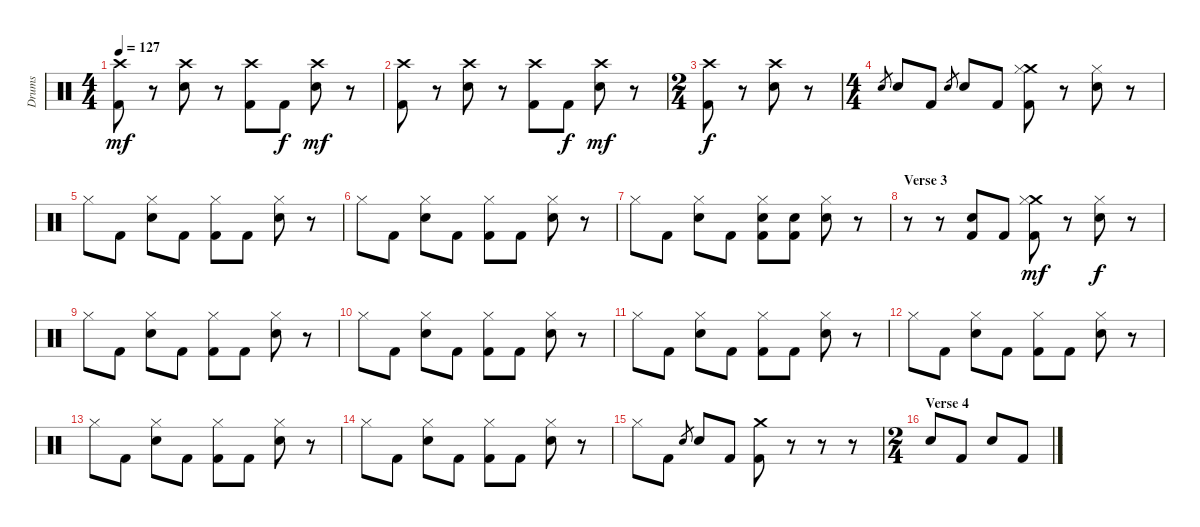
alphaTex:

\track ("Drums" "Drums") {instrument percussion}
\staff {score}
\articulation defaults
\ts (4 4)
\tempo 127
\clef neutral
\ks c
("Crash high (hit)" "Kick (hit) 2").8{dy mf} r.8 ("Crash high (hit)" "Electric Snare (hit)").8 r.8 ("Crash high (hit)" "Kick (hit) 2").8 "Kick (hit) 2".8{dy f} ("Crash high (hit)" "Electric Snare (hit)").8{dy mf} r.8 |
("Crash high (hit)" "Kick (hit) 2").8 r.8 ("Crash high (hit)" "Electric Snare (hit)").8 r.8 ("Crash high (hit)" "Kick (hit) 2").8 "Kick (hit) 2".8{dy f} ("Crash high (hit)" "Electric Snare (hit)").8{dy mf} r.8 |
\ts (2 4)
("Crash high (hit)" "Kick (hit) 2").8{dy f} r.8 ("Crash high (hit)" "Electric Snare (hit)").8 r.8 |
\ts (4 4)
"Electric Snare (hit)".8{gr} "Electric Snare (hit)".8 "Kick (hit) 2".8 "Electric Snare (hit)".8{gr} "Electric Snare (hit)".8 "Kick (hit) 2".8 ("Crash medium (hit)" "Hi-Hat (closed)" "Kick (hit) 2").8 r.8 ("Hi-Hat (closed)" "Electric Snare (hit)").8 r.8 |
"Hi-Hat (closed)".8 "Kick (hit) 2".8 ("Hi-Hat (closed)" "Electric Snare (hit)").8 "Kick (hit) 2".8 ("Hi-Hat (closed)" "Kick (hit) 2").8 "Kick (hit) 2".8 ("Hi-Hat (closed)" "Electric Snare (hit)").8 r.8 |
"Hi-Hat (closed)".8 "Kick (hit) 2".8 ("Hi-Hat (closed)" "Electric Snare (hit)").8 "Kick (hit) 2".8 ("Hi-Hat (closed)" "Kick (hit) 2").8 "Kick (hit) 2".8 ("Hi-Hat (closed)" "Electric Snare (hit)").8 r.8 |
"Hi-Hat (closed)".8 "Kick (hit) 2".8 ("Hi-Hat (closed)" "Electric Snare (hit)").8 "Kick (hit) 2".8 ("Hi-Hat (closed)" "Electric Snare (hit)" "Kick (hit) 2").8 ("Electric Snare (hit)" "Kick (hit) 2").8 ("Hi-Hat (closed)" "Electric Snare (hit)").8 r.8 |
\section ("" "Verse 3")
r.8 r.8 ("Electric Snare (hit)" "Kick (hit) 2").8 "Kick (hit) 2".8 ("Crash medium (hit)" "Hi-Hat (closed)" "Kick (hit) 2").8{dy mf} r.8 ("Hi-Hat (closed)" "Electric Snare (hit)").8{dy f} r.8 |
"Hi-Hat (closed)".8 "Kick (hit) 2".8 ("Hi-Hat (closed)" "Electric Snare (hit)").8 "Kick (hit) 2".8 ("Hi-Hat (closed)" "Kick (hit) 2").8 "Kick (hit) 2".8 ("Hi-Hat (closed)" "Electric Snare (hit)").8 r.8 |
"Hi-Hat (closed)".8 "Kick (hit) 2".8 ("Hi-Hat (closed)" "Electric Snare (hit)").8 "Kick (hit) 2".8 ("Hi-Hat (closed)" "Kick (hit) 2").8 "Kick (hit) 2".8 ("Hi-Hat (closed)" "Electric Snare (hit)").8 r.8 |
"Hi-Hat (closed)".8 "Kick (hit) 2".8 ("Hi-Hat (closed)" "Electric Snare (hit)").8 "Kick (hit) 2".8 ("Hi-Hat (closed)" "Kick (hit) 2").8 "Kick (hit) 2".8 ("Hi-Hat (closed)" "Electric Snare (hit)").8 r.8 |
"Hi-Hat (closed)".8 "Kick (hit) 2".8 ("Hi-Hat (closed)" "Electric Snare (hit)").8 "Kick (hit) 2".8 ("Hi-Hat (closed)" "Kick (hit) 2").8 "Kick (hit) 2".8 ("Hi-Hat (closed)" "Electric Snare (hit)").8 r.8 |
"Hi-Hat (closed)".8 "Kick (hit) 2".8 ("Hi-Hat (closed)" "Electric Snare (hit)").8 "Kick (hit) 2".8 ("Hi-Hat (closed)" "Kick (hit) 2").8 "Kick (hit) 2".8 ("Hi-Hat (closed)" "Electric Snare (hit)").8 r.8 |
"Hi-Hat (closed)".8 "Kick (hit) 2".8 ("Hi-Hat (closed)" "Electric Snare (hit)").8 "Kick (hit) 2".8 ("Hi-Hat (closed)" "Kick (hit) 2").8 "Kick (hit) 2".8 ("Hi-Hat (closed)" "Electric Snare (hit)").8 r.8 |
"Hi-Hat (closed)".8 "Kick (hit) 2".8 "Electric Snare (hit)".8{gr} "Electric Snare (hit)".8 "Kick (hit) 2".8 ("Crash medium (hit)" "Kick (hit) 2").8 r.8 r.8 r.8 |
\ts (2 4)
\section ("" "Verse 4")
"Electric Snare (hit)".8 "Kick (hit) 2".8 "Electric Snare (hit)".8 "Kick (hit) 2".8
